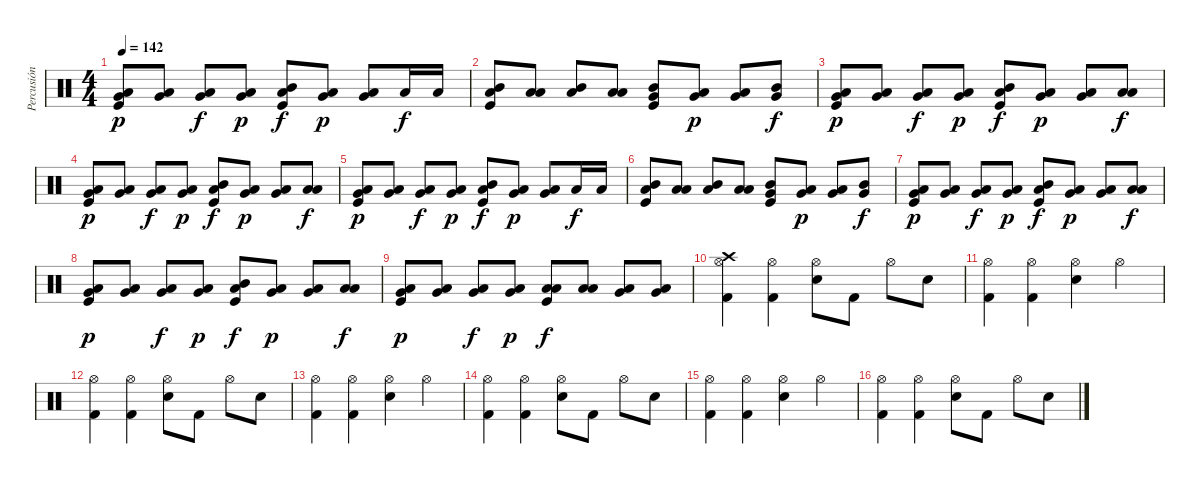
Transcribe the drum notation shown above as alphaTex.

\track ("Percusión" "Percusión") {instrument percussion}
\staff {score}
\articulation defaults
\ts (4 4)
\tempo 142
\clef neutral
\ks c
("Very Low Tom (hit)" "Low Floor Tom (hit)" "Kick (hit)").8{dy p} ("Very Low Tom (hit)" "Low Floor Tom (hit)").8 ("Low Tom (hit)" "Very Low Tom (hit)").8{dy f} ("Very Low Tom (hit)" "Low Floor Tom (hit)").8{dy p} ("Mid Tom (hit)" "Low Floor Tom (hit)" "Kick (hit)").8{dy f} ("Very Low Tom (hit)" "Low Floor Tom (hit)").8{dy p} ("Very Low Tom (hit)" "Low Floor Tom (hit)").8 "Low Tom (hit)".16{dy f} "Low Tom (hit)".16 |
("Mid Tom (hit)" "Low Floor Tom (hit)" "Kick (hit)").8 ("Low Tom (hit)" "Low Floor Tom (hit)").8 ("Mid Tom (hit)" "Low Floor Tom (hit)").8 ("Low Tom (hit)" "Low Floor Tom (hit)").8 ("Mid Tom (hit)" "Very Low Tom (hit)" "Kick (hit)").8 ("Very Low Tom (hit)" "Low Floor Tom (hit)").8{dy p} ("Very Low Tom (hit)" "Low Floor Tom (hit)").8 ("Mid Tom (hit)" "Very Low Tom (hit)").8{dy f} |
("Very Low Tom (hit)" "Low Floor Tom (hit)" "Kick (hit)").8{dy p} ("Very Low Tom (hit)" "Low Floor Tom (hit)").8 ("Low Tom (hit)" "Very Low Tom (hit)").8{dy f} ("Very Low Tom (hit)" "Low Floor Tom (hit)").8{dy p} ("Mid Tom (hit)" "Low Floor Tom (hit)" "Kick (hit)").8{dy f} ("Very Low Tom (hit)" "Low Floor Tom (hit)").8{dy p} ("Very Low Tom (hit)" "Low Floor Tom (hit)").8 ("Low Tom (hit)" "Low Floor Tom (hit)").8{dy f} |
("Very Low Tom (hit)" "Low Floor Tom (hit)" "Kick (hit)").8{dy p} ("Very Low Tom (hit)" "Low Floor Tom (hit)").8 ("Low Tom (hit)" "Very Low Tom (hit)").8{dy f} ("Very Low Tom (hit)" "Low Floor Tom (hit)").8{dy p} ("Mid Tom (hit)" "Low Floor Tom (hit)" "Kick (hit)").8{dy f} ("Very Low Tom (hit)" "Low Floor Tom (hit)").8{dy p} ("Very Low Tom (hit)" "Low Floor Tom (hit)").8 ("Low Tom (hit)" "Low Floor Tom (hit)").8{dy f} |
("Very Low Tom (hit)" "Low Floor Tom (hit)" "Kick (hit)").8{dy p} ("Very Low Tom (hit)" "Low Floor Tom (hit)").8 ("Low Tom (hit)" "Very Low Tom (hit)").8{dy f} ("Very Low Tom (hit)" "Low Floor Tom (hit)").8{dy p} ("Mid Tom (hit)" "Low Floor Tom (hit)" "Kick (hit)").8{dy f} ("Very Low Tom (hit)" "Low Floor Tom (hit)").8{dy p} ("Very Low Tom (hit)" "Low Floor Tom (hit)").8 "Low Tom (hit)".16{dy f} "Low Tom (hit)".16 |
("Mid Tom (hit)" "Low Floor Tom (hit)" "Kick (hit)").8 ("Low Tom (hit)" "Low Floor Tom (hit)").8 ("Mid Tom (hit)" "Low Floor Tom (hit)").8 ("Low Tom (hit)" "Low Floor Tom (hit)").8 ("Mid Tom (hit)" "Very Low Tom (hit)" "Kick (hit)").8 ("Very Low Tom (hit)" "Low Floor Tom (hit)").8{dy p} ("Very Low Tom (hit)" "Low Floor Tom (hit)").8 ("Mid Tom (hit)" "Very Low Tom (hit)").8{dy f} |
("Very Low Tom (hit)" "Low Floor Tom (hit)" "Kick (hit)").8{dy p} ("Very Low Tom (hit)" "Low Floor Tom (hit)").8 ("Low Tom (hit)" "Very Low Tom (hit)").8{dy f} ("Very Low Tom (hit)" "Low Floor Tom (hit)").8{dy p} ("Mid Tom (hit)" "Low Floor Tom (hit)" "Kick (hit)").8{dy f} ("Very Low Tom (hit)" "Low Floor Tom (hit)").8{dy p} ("Very Low Tom (hit)" "Low Floor Tom (hit)").8 ("Low Tom (hit)" "Low Floor Tom (hit)").8{dy f} |
("Very Low Tom (hit)" "Low Floor Tom (hit)" "Kick (hit)").8{dy p} ("Very Low Tom (hit)" "Low Floor Tom (hit)").8 ("Low Tom (hit)" "Very Low Tom (hit)").8{dy f} ("Very Low Tom (hit)" "Low Floor Tom (hit)").8{dy p} ("Mid Tom (hit)" "Low Floor Tom (hit)" "Kick (hit)").8{dy f} ("Very Low Tom (hit)" "Low Floor Tom (hit)").8{dy p} ("Very Low Tom (hit)" "Low Floor Tom (hit)").8 ("Low Tom (hit)" "Low Floor Tom (hit)").8{dy f} |
("Very Low Tom (hit)" "Low Floor Tom (hit)" "Kick (hit)").8{dy p} ("Very Low Tom (hit)" "Low Floor Tom (hit)").8 ("Low Tom (hit)" "Very Low Tom (hit)").8{dy f} ("Very Low Tom (hit)" "Low Floor Tom (hit)").8{dy p} ("Low Tom (hit)" "Low Floor Tom (hit)" "Kick (hit)").8{dy f} ("Low Tom (hit)" "Low Floor Tom (hit)").8 ("Very Low Tom (hit)" "Low Floor Tom (hit)").8 ("Very Low Tom (hit)" "Low Floor Tom (hit)").8 |
("Crash high (hit)" "Hi-Hat (open)" "Kick (hit) 2").4 ("Hi-Hat (open)" "Kick (hit) 2").4 ("Hi-Hat (open)" "Snare (hit) 2").8 "Kick (hit) 2".8 "Hi-Hat (open)".8 "Snare (hit) 2".8 |
("Hi-Hat (open)" "Kick (hit) 2").4 ("Hi-Hat (open)" "Kick (hit) 2").4 ("Hi-Hat (open)" "Snare (hit) 2").4 "Hi-Hat (open)".4 |
("Hi-Hat (open)" "Kick (hit) 2").4 ("Hi-Hat (open)" "Kick (hit) 2").4 ("Hi-Hat (open)" "Snare (hit) 2").8 "Kick (hit) 2".8 "Hi-Hat (open)".8 "Snare (hit) 2".8 |
("Hi-Hat (open)" "Kick (hit) 2").4 ("Hi-Hat (open)" "Kick (hit) 2").4 ("Hi-Hat (open)" "Snare (hit) 2").4 "Hi-Hat (open)".4 |
("Hi-Hat (open)" "Kick (hit) 2").4 ("Hi-Hat (open)" "Kick (hit) 2").4 ("Hi-Hat (open)" "Snare (hit) 2").8 "Kick (hit) 2".8 "Hi-Hat (open)".8 "Snare (hit) 2".8 |
("Hi-Hat (open)" "Kick (hit) 2").4 ("Hi-Hat (open)" "Kick (hit) 2").4 ("Hi-Hat (open)" "Snare (hit) 2").4 "Hi-Hat (open)".4 |
("Hi-Hat (open)" "Kick (hit) 2").4 ("Hi-Hat (open)" "Kick (hit) 2").4 ("Hi-Hat (open)" "Snare (hit) 2").8 "Kick (hit) 2".8 "Hi-Hat (open)".8 "Snare (hit) 2".8
